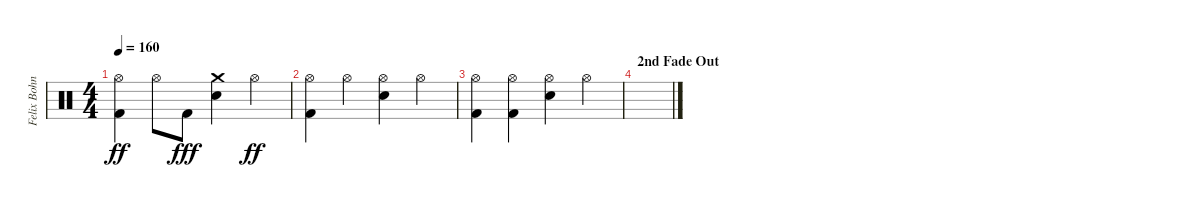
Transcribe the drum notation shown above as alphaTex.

\track ("Felix Bohnke" "Felix Bohn") {instrument percussion}
\staff {score}
\articulation defaults
\ts (4 4)
\tempo 160
\clef neutral
\ks c
("Kick (hit) 2" "Hi-Hat (open)").4{dy ff volume 3} "Hi-Hat (open)".8 "Kick (hit) 2".8{dy fff} ("Snare (hit) 2" "Crash medium (hit)").4 "Hi-Hat (open)".4{dy ff} |
("Kick (hit) 2" "Hi-Hat (open)").4{volume 2} "Hi-Hat (open)".4 ("Snare (hit) 2" "Hi-Hat (open)").4 "Hi-Hat (open)".4 |
("Kick (hit) 2" "Hi-Hat (open)").4{volume 1} ("Kick (hit) 2" "Hi-Hat (open)").4 ("Snare (hit) 2" "Hi-Hat (open)").4 "Hi-Hat (open)".4 |
\section ("" "2nd Fade Out")
